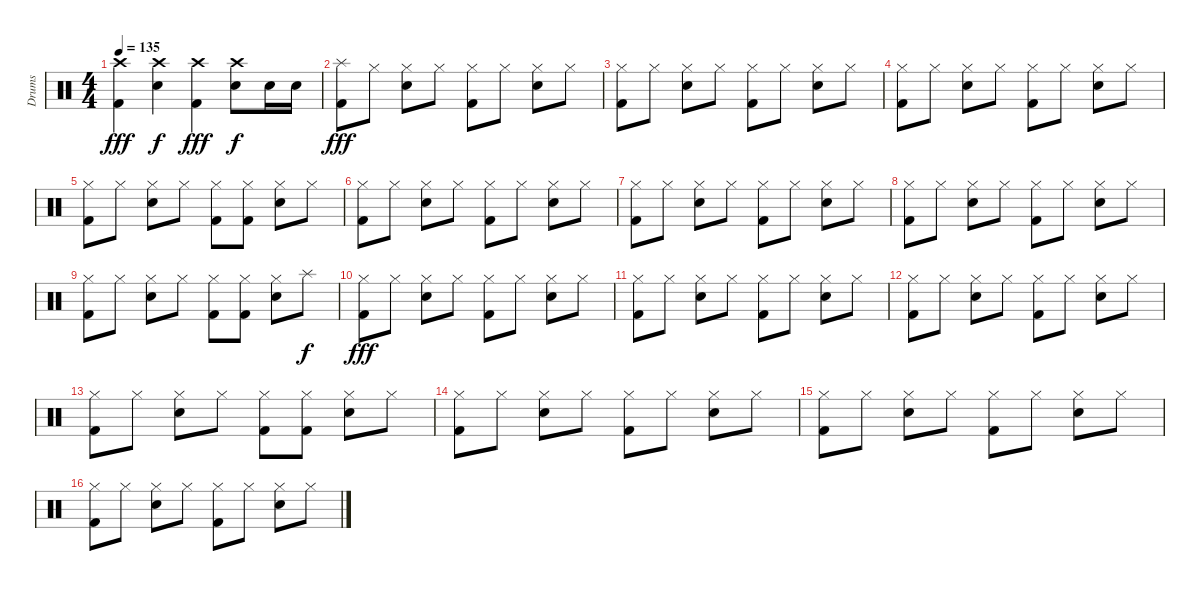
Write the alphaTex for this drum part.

\track ("Drums" "Drums") {instrument percussion}
\staff {score}
\articulation defaults
\ts (4 4)
\tempo 135
\clef neutral
\ks c
("Crash high (hit)" "Kick (hit) 2").4{dy fff} ("Crash high (hit)" "Snare (hit) 2").4{dy f} ("Crash high (hit)" "Kick (hit) 2").4{dy fff} ("Crash high (hit)" "Snare (hit) 2").8{dy f} "Snare (hit) 2".16 "Snare (hit) 2".16 |
("Splash (hit)" "Kick (hit) 2").8{dy fff} "Hi-Hat (closed)".8 ("Hi-Hat (closed)" "Snare (hit) 2").8 "Hi-Hat (closed)".8 ("Hi-Hat (closed)" "Kick (hit) 2").8 "Hi-Hat (closed)".8 ("Hi-Hat (closed)" "Snare (hit) 2").8 "Hi-Hat (closed)".8 |
("Hi-Hat (closed)" "Kick (hit) 2").8 "Hi-Hat (closed)".8 ("Hi-Hat (closed)" "Snare (hit) 2").8 "Hi-Hat (closed)".8 ("Hi-Hat (closed)" "Kick (hit) 2").8 "Hi-Hat (closed)".8 ("Hi-Hat (closed)" "Snare (hit) 2").8 "Hi-Hat (closed)".8 |
("Hi-Hat (closed)" "Kick (hit) 2").8 "Hi-Hat (closed)".8 ("Hi-Hat (closed)" "Snare (hit) 2").8 "Hi-Hat (closed)".8 ("Hi-Hat (closed)" "Kick (hit) 2").8 "Hi-Hat (closed)".8 ("Hi-Hat (closed)" "Snare (hit) 2").8 "Hi-Hat (closed)".8 |
("Hi-Hat (closed)" "Kick (hit) 2").8 "Hi-Hat (closed)".8 ("Hi-Hat (closed)" "Snare (hit) 2").8 "Hi-Hat (closed)".8 ("Hi-Hat (closed)" "Kick (hit) 2").8 ("Hi-Hat (closed)" "Kick (hit) 2").8 ("Hi-Hat (closed)" "Snare (hit) 2").8 "Hi-Hat (closed)".8 |
("Hi-Hat (closed)" "Kick (hit) 2").8 "Hi-Hat (closed)".8 ("Hi-Hat (closed)" "Snare (hit) 2").8 "Hi-Hat (closed)".8 ("Hi-Hat (closed)" "Kick (hit) 2").8 "Hi-Hat (closed)".8 ("Hi-Hat (closed)" "Snare (hit) 2").8 "Hi-Hat (closed)".8 |
("Hi-Hat (closed)" "Kick (hit) 2").8 "Hi-Hat (closed)".8 ("Hi-Hat (closed)" "Snare (hit) 2").8 "Hi-Hat (closed)".8 ("Hi-Hat (closed)" "Kick (hit) 2").8 "Hi-Hat (closed)".8 ("Hi-Hat (closed)" "Snare (hit) 2").8 "Hi-Hat (closed)".8 |
("Hi-Hat (closed)" "Kick (hit) 2").8 "Hi-Hat (closed)".8 ("Hi-Hat (closed)" "Snare (hit) 2").8 "Hi-Hat (closed)".8 ("Hi-Hat (closed)" "Kick (hit) 2").8 "Hi-Hat (closed)".8 ("Hi-Hat (closed)" "Snare (hit) 2").8 "Hi-Hat (closed)".8 |
("Hi-Hat (closed)" "Kick (hit) 2").8 "Hi-Hat (closed)".8 ("Hi-Hat (closed)" "Snare (hit) 2").8 "Hi-Hat (closed)".8 ("Hi-Hat (closed)" "Kick (hit) 2").8 ("Hi-Hat (closed)" "Kick (hit) 2").8 ("Hi-Hat (closed)" "Snare (hit) 2").8 "Splash (hit)".8{dy f} |
("Hi-Hat (closed)" "Kick (hit) 2").8{dy fff} "Hi-Hat (closed)".8 ("Hi-Hat (closed)" "Snare (hit) 2").8 "Hi-Hat (closed)".8 ("Hi-Hat (closed)" "Kick (hit) 2").8 "Hi-Hat (closed)".8 ("Hi-Hat (closed)" "Snare (hit) 2").8 "Hi-Hat (closed)".8 |
("Hi-Hat (closed)" "Kick (hit) 2").8 "Hi-Hat (closed)".8 ("Hi-Hat (closed)" "Snare (hit) 2").8 "Hi-Hat (closed)".8 ("Hi-Hat (closed)" "Kick (hit) 2").8 "Hi-Hat (closed)".8 ("Hi-Hat (closed)" "Snare (hit) 2").8 "Hi-Hat (closed)".8 |
("Hi-Hat (closed)" "Kick (hit) 2").8 "Hi-Hat (closed)".8 ("Hi-Hat (closed)" "Snare (hit) 2").8 "Hi-Hat (closed)".8 ("Hi-Hat (closed)" "Kick (hit) 2").8 "Hi-Hat (closed)".8 ("Hi-Hat (closed)" "Snare (hit) 2").8 "Hi-Hat (closed)".8 |
("Hi-Hat (closed)" "Kick (hit) 2").8 "Hi-Hat (closed)".8 ("Hi-Hat (closed)" "Snare (hit) 2").8 "Hi-Hat (closed)".8 ("Hi-Hat (closed)" "Kick (hit) 2").8 ("Hi-Hat (closed)" "Kick (hit) 2").8 ("Hi-Hat (closed)" "Snare (hit) 2").8 "Hi-Hat (closed)".8 |
("Hi-Hat (closed)" "Kick (hit) 2").8 "Hi-Hat (closed)".8 ("Hi-Hat (closed)" "Snare (hit) 2").8 "Hi-Hat (closed)".8 ("Hi-Hat (closed)" "Kick (hit) 2").8 "Hi-Hat (closed)".8 ("Hi-Hat (closed)" "Snare (hit) 2").8 "Hi-Hat (closed)".8 |
("Hi-Hat (closed)" "Kick (hit) 2").8 "Hi-Hat (closed)".8 ("Hi-Hat (closed)" "Snare (hit) 2").8 "Hi-Hat (closed)".8 ("Hi-Hat (closed)" "Kick (hit) 2").8 "Hi-Hat (closed)".8 ("Hi-Hat (closed)" "Snare (hit) 2").8 "Hi-Hat (closed)".8 |
("Hi-Hat (closed)" "Kick (hit) 2").8 "Hi-Hat (closed)".8 ("Hi-Hat (closed)" "Snare (hit) 2").8 "Hi-Hat (closed)".8 ("Hi-Hat (closed)" "Kick (hit) 2").8 "Hi-Hat (closed)".8 ("Hi-Hat (closed)" "Snare (hit) 2").8 "Hi-Hat (closed)".8
